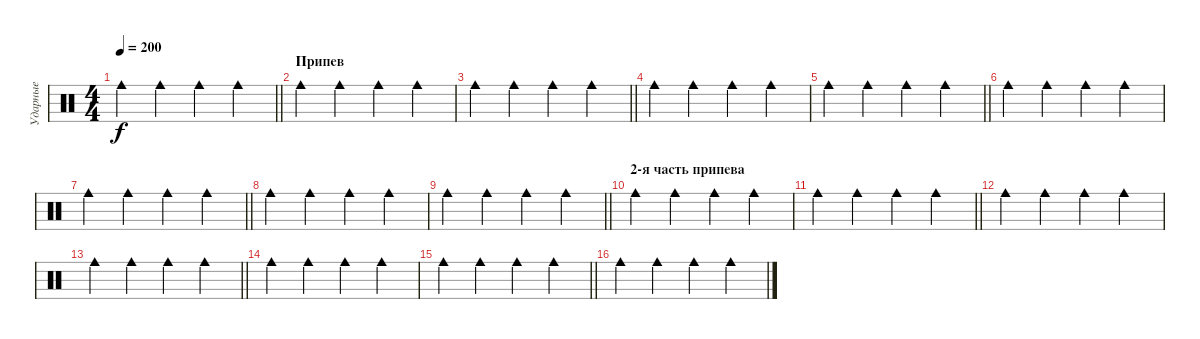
\track ("Ударные" "Ударные") {instrument percussion}
\staff {score}
\articulation defaults
\ts (4 4)
\tempo 200
\clef neutral
\barLineRight lightlight
\ks c "Cowbell medium (hit)".4{dy f} "Cowbell medium (hit)".4 "Cowbell medium (hit)".4 "Cowbell medium (hit)".4
|
\section ("" "Припев")
"Cowbell medium (hit)".4 "Cowbell medium (hit)".4 "Cowbell medium (hit)".4 "Cowbell medium (hit)".4 |
\barLineRight lightlight "Cowbell medium (hit)".4 "Cowbell medium (hit)".4 "Cowbell medium (hit)".4 "Cowbell medium (hit)".4
|
"Cowbell medium (hit)".4 "Cowbell medium (hit)".4 "Cowbell medium (hit)".4 "Cowbell medium (hit)".4 |
\barLineRight lightlight "Cowbell medium (hit)".4 "Cowbell medium (hit)".4 "Cowbell medium (hit)".4 "Cowbell medium (hit)".4
|
"Cowbell medium (hit)".4 "Cowbell medium (hit)".4 "Cowbell medium (hit)".4 "Cowbell medium (hit)".4 |
\barLineRight lightlight "Cowbell medium (hit)".4 "Cowbell medium (hit)".4 "Cowbell medium (hit)".4 "Cowbell medium (hit)".4
|
"Cowbell medium (hit)".4 "Cowbell medium (hit)".4 "Cowbell medium (hit)".4 "Cowbell medium (hit)".4 |
\barLineRight lightlight "Cowbell medium (hit)".4 "Cowbell medium (hit)".4 "Cowbell medium (hit)".4 "Cowbell medium (hit)".4
|
\section ("" "2-я часть припева")
"Cowbell medium (hit)".4 "Cowbell medium (hit)".4 "Cowbell medium (hit)".4 "Cowbell medium (hit)".4 |
\barLineRight lightlight "Cowbell medium (hit)".4 "Cowbell medium (hit)".4 "Cowbell medium (hit)".4 "Cowbell medium (hit)".4
|
"Cowbell medium (hit)".4 "Cowbell medium (hit)".4 "Cowbell medium (hit)".4 "Cowbell medium (hit)".4 |
\barLineRight lightlight "Cowbell medium (hit)".4 "Cowbell medium (hit)".4 "Cowbell medium (hit)".4 "Cowbell medium (hit)".4
|
"Cowbell medium (hit)".4 "Cowbell medium (hit)".4 "Cowbell medium (hit)".4 "Cowbell medium (hit)".4 |
\barLineRight lightlight "Cowbell medium (hit)".4 "Cowbell medium (hit)".4 "Cowbell medium (hit)".4 "Cowbell medium (hit)".4
|
"Cowbell medium (hit)".4 "Cowbell medium (hit)".4 "Cowbell medium (hit)".4 "Cowbell medium (hit)".4
